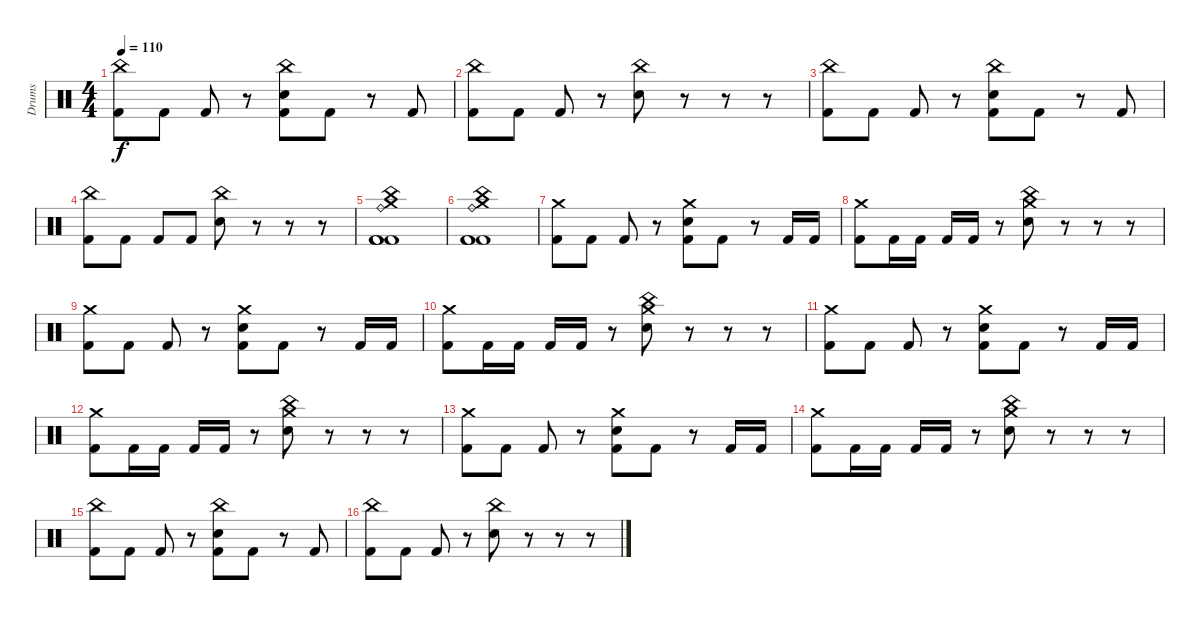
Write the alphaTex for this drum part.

\track ("Drums" "Drums") {instrument percussion}
\staff {score}
\articulation defaults
\ts (4 4)
\tempo 110
\clef neutral
\ks c
("China (hit)" "Kick (hit) 2").8{dy f} "Kick (hit) 2".8 "Kick (hit) 2".8 r.8 ("China (hit)" "Snare (hit) 2" "Kick (hit) 2").8 "Kick (hit) 2".8 r.8 "Kick (hit) 2".8 |
("China (hit)" "Kick (hit) 2").8 "Kick (hit) 2".8 "Kick (hit) 2".8 r.8 ("China (hit)" "Snare (hit) 2").8 r.8 r.8 r.8 |
("China (hit)" "Kick (hit) 2").8 "Kick (hit) 2".8 "Kick (hit) 2".8 r.8 ("China (hit)" "Snare (hit) 2" "Kick (hit) 2").8 "Kick (hit) 2".8 r.8 "Kick (hit) 2".8 |
("China (hit)" "Kick (hit) 2").8 "Kick (hit) 2".8 "Kick (hit) 2".8 "Kick (hit) 2".8 ("China (hit)" "Snare (hit) 2").8 r.8 r.8 r.8 |
("Ride (bell)" "Crash medium (hit)" "China (hit)" "Kick (hit) 2" "Kick (hit) 2" "Kick (hit) 2").1 |
("Ride (bell)" "Crash medium (hit)" "China (hit)" "Kick (hit) 2" "Kick (hit) 2" "Kick (hit) 2").1 |
("Crash medium (hit)" "Kick (hit) 2").8 "Kick (hit) 2".8 "Kick (hit) 2".8 r.8 ("Crash medium (hit)" "Snare (hit) 2" "Kick (hit) 2").8 "Kick (hit) 2".8 r.8 "Kick (hit) 2".16 "Kick (hit) 2".16 |
("Crash medium (hit)" "Kick (hit) 2").8 "Kick (hit) 2".16 "Kick (hit) 2".16 "Kick (hit) 2".16 "Kick (hit) 2".16 r.8 ("Crash medium (hit)" "China (hit)" "Snare (hit) 2").8 r.8 r.8 r.8 |
("Crash medium (hit)" "Kick (hit) 2").8 "Kick (hit) 2".8 "Kick (hit) 2".8 r.8 ("Crash medium (hit)" "Snare (hit) 2" "Kick (hit) 2").8 "Kick (hit) 2".8 r.8 "Kick (hit) 2".16 "Kick (hit) 2".16 |
("Crash medium (hit)" "Kick (hit) 2").8 "Kick (hit) 2".16 "Kick (hit) 2".16 "Kick (hit) 2".16 "Kick (hit) 2".16 r.8 ("Crash medium (hit)" "China (hit)" "Snare (hit) 2").8 r.8 r.8 r.8 |
("Crash medium (hit)" "Kick (hit) 2").8 "Kick (hit) 2".8 "Kick (hit) 2".8 r.8 ("Crash medium (hit)" "Snare (hit) 2" "Kick (hit) 2").8 "Kick (hit) 2".8 r.8 "Kick (hit) 2".16 "Kick (hit) 2".16 |
("Crash medium (hit)" "Kick (hit) 2").8 "Kick (hit) 2".16 "Kick (hit) 2".16 "Kick (hit) 2".16 "Kick (hit) 2".16 r.8 ("Crash medium (hit)" "China (hit)" "Snare (hit) 2").8 r.8 r.8 r.8 |
("Crash medium (hit)" "Kick (hit) 2").8 "Kick (hit) 2".8 "Kick (hit) 2".8 r.8 ("Crash medium (hit)" "Snare (hit) 2" "Kick (hit) 2").8 "Kick (hit) 2".8 r.8 "Kick (hit) 2".16 "Kick (hit) 2".16 |
("Crash medium (hit)" "Kick (hit) 2").8 "Kick (hit) 2".16 "Kick (hit) 2".16 "Kick (hit) 2".16 "Kick (hit) 2".16 r.8 ("Crash medium (hit)" "China (hit)" "Snare (hit) 2").8 r.8 r.8 r.8 |
("China (hit)" "Kick (hit) 2").8 "Kick (hit) 2".8 "Kick (hit) 2".8 r.8 ("China (hit)" "Snare (hit) 2" "Kick (hit) 2").8 "Kick (hit) 2".8 r.8 "Kick (hit) 2".8 |
("China (hit)" "Kick (hit) 2").8 "Kick (hit) 2".8 "Kick (hit) 2".8 r.8 ("China (hit)" "Snare (hit) 2").8 r.8 r.8 r.8
